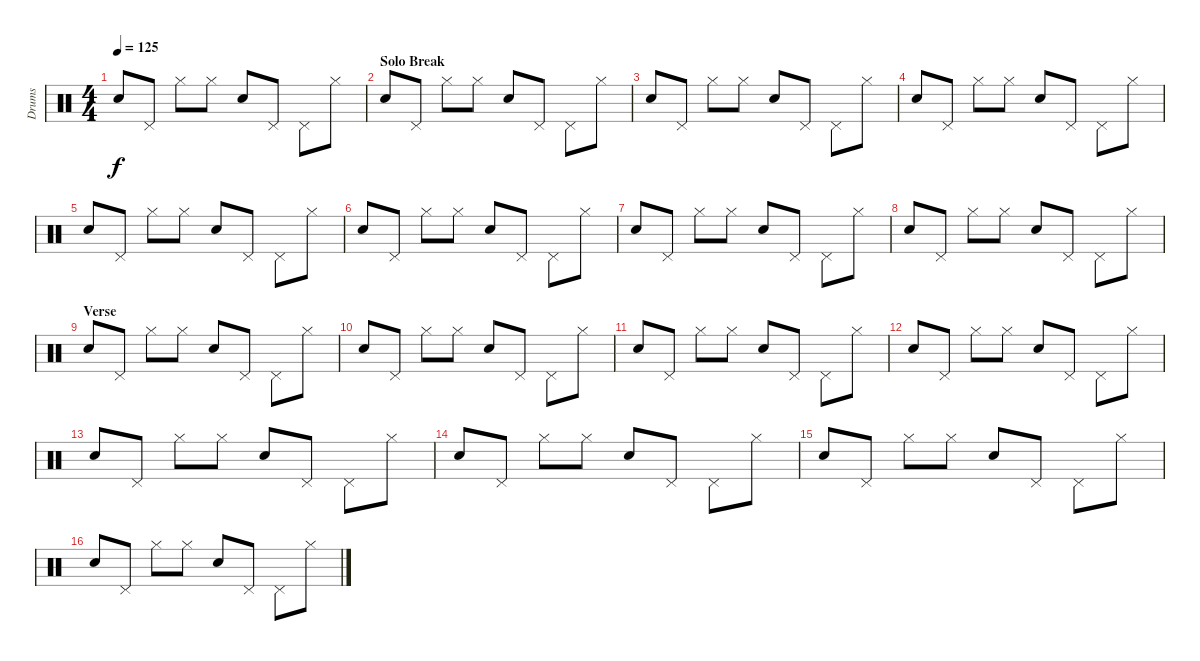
\track ("Drums" "Drums") {instrument percussion}
\staff {score}
\articulation defaults
\ts (4 4)
\tempo 125
\clef neutral
\ks c "Electric Snare (hit)".8{dy f} "Pedal Hi-Hat (hit)".8 "Hi-Hat (closed)".8 "Hi-Hat (closed)".8 "Electric Snare (hit)".8 "Pedal Hi-Hat (hit)".8 "Pedal Hi-Hat (hit)".8 "Hi-Hat (closed)".8
|
\section ("" "Solo Break")
"Electric Snare (hit)".8 "Pedal Hi-Hat (hit)".8 "Hi-Hat (closed)".8 "Hi-Hat (closed)".8 "Electric Snare (hit)".8 "Pedal Hi-Hat (hit)".8 "Pedal Hi-Hat (hit)".8 "Hi-Hat (closed)".8 |
"Electric Snare (hit)".8 "Pedal Hi-Hat (hit)".8 "Hi-Hat (closed)".8 "Hi-Hat (closed)".8 "Electric Snare (hit)".8 "Pedal Hi-Hat (hit)".8 "Pedal Hi-Hat (hit)".8 "Hi-Hat (closed)".8 |
"Electric Snare (hit)".8 "Pedal Hi-Hat (hit)".8 "Hi-Hat (closed)".8 "Hi-Hat (closed)".8 "Electric Snare (hit)".8 "Pedal Hi-Hat (hit)".8 "Pedal Hi-Hat (hit)".8 "Hi-Hat (closed)".8 |
"Electric Snare (hit)".8 "Pedal Hi-Hat (hit)".8 "Hi-Hat (closed)".8 "Hi-Hat (closed)".8 "Electric Snare (hit)".8 "Pedal Hi-Hat (hit)".8 "Pedal Hi-Hat (hit)".8 "Hi-Hat (closed)".8 |
"Electric Snare (hit)".8 "Pedal Hi-Hat (hit)".8 "Hi-Hat (closed)".8 "Hi-Hat (closed)".8 "Electric Snare (hit)".8 "Pedal Hi-Hat (hit)".8 "Pedal Hi-Hat (hit)".8 "Hi-Hat (closed)".8 |
"Electric Snare (hit)".8 "Pedal Hi-Hat (hit)".8 "Hi-Hat (closed)".8 "Hi-Hat (closed)".8 "Electric Snare (hit)".8 "Pedal Hi-Hat (hit)".8 "Pedal Hi-Hat (hit)".8 "Hi-Hat (closed)".8 |
"Electric Snare (hit)".8 "Pedal Hi-Hat (hit)".8 "Hi-Hat (closed)".8 "Hi-Hat (closed)".8 "Electric Snare (hit)".8 "Pedal Hi-Hat (hit)".8 "Pedal Hi-Hat (hit)".8 "Hi-Hat (closed)".8 |
\section ("" "Verse")
"Electric Snare (hit)".8 "Pedal Hi-Hat (hit)".8 "Hi-Hat (closed)".8 "Hi-Hat (closed)".8 "Electric Snare (hit)".8 "Pedal Hi-Hat (hit)".8 "Pedal Hi-Hat (hit)".8 "Hi-Hat (closed)".8 |
"Electric Snare (hit)".8 "Pedal Hi-Hat (hit)".8 "Hi-Hat (closed)".8 "Hi-Hat (closed)".8 "Electric Snare (hit)".8 "Pedal Hi-Hat (hit)".8 "Pedal Hi-Hat (hit)".8 "Hi-Hat (closed)".8 |
"Electric Snare (hit)".8 "Pedal Hi-Hat (hit)".8 "Hi-Hat (closed)".8 "Hi-Hat (closed)".8 "Electric Snare (hit)".8 "Pedal Hi-Hat (hit)".8 "Pedal Hi-Hat (hit)".8 "Hi-Hat (closed)".8 |
"Electric Snare (hit)".8 "Pedal Hi-Hat (hit)".8 "Hi-Hat (closed)".8 "Hi-Hat (closed)".8 "Electric Snare (hit)".8 "Pedal Hi-Hat (hit)".8 "Pedal Hi-Hat (hit)".8 "Hi-Hat (closed)".8 |
"Electric Snare (hit)".8 "Pedal Hi-Hat (hit)".8 "Hi-Hat (closed)".8 "Hi-Hat (closed)".8 "Electric Snare (hit)".8 "Pedal Hi-Hat (hit)".8 "Pedal Hi-Hat (hit)".8 "Hi-Hat (closed)".8 |
"Electric Snare (hit)".8 "Pedal Hi-Hat (hit)".8 "Hi-Hat (closed)".8 "Hi-Hat (closed)".8 "Electric Snare (hit)".8 "Pedal Hi-Hat (hit)".8 "Pedal Hi-Hat (hit)".8 "Hi-Hat (closed)".8 |
"Electric Snare (hit)".8 "Pedal Hi-Hat (hit)".8 "Hi-Hat (closed)".8 "Hi-Hat (closed)".8 "Electric Snare (hit)".8 "Pedal Hi-Hat (hit)".8 "Pedal Hi-Hat (hit)".8 "Hi-Hat (closed)".8 |
"Electric Snare (hit)".8 "Pedal Hi-Hat (hit)".8 "Hi-Hat (closed)".8 "Hi-Hat (closed)".8 "Electric Snare (hit)".8 "Pedal Hi-Hat (hit)".8 "Pedal Hi-Hat (hit)".8 "Hi-Hat (closed)".8
